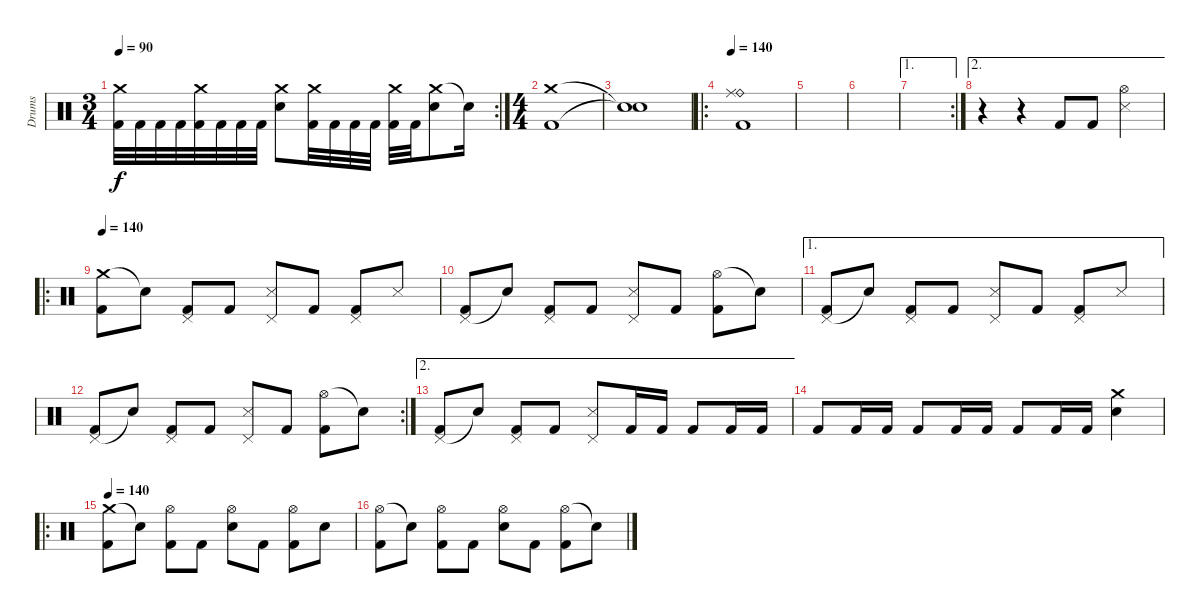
\track ("Drums" "Drums") {instrument percussion}
\staff {score}
\articulation defaults
\rc 2
\ts (3 4)
\tempo 90
\clef neutral
\ks c
("Crash medium (hit)" "Kick (hit) 2").32{dy f} "Kick (hit) 2".32 "Kick (hit) 2".32 "Kick (hit) 2".32 ("Crash medium (hit)" "Kick (hit) 2").32 "Kick (hit) 2".32 "Kick (hit) 2".32 "Kick (hit) 2".32 ("Crash medium (hit)" "Electric Snare (hit)").8 ("Crash medium (hit)" "Kick (hit) 2").32 "Kick (hit) 2".32 "Kick (hit) 2".32 "Kick (hit) 2".32 ("Crash medium (hit)" "Kick (hit) 2").32 "Kick (hit) 2".32 ("Crash medium (hit)" "Electric Snare (hit)").8 "Snare (hit)"{t}.16 |
\ts (4 4)
("Crash medium (hit)" "Kick (hit) 2").1 |
("Snare (hit)"{t} "Snare (hit)"{t}).1{volume 0} |
\ro
\tempo 140
("Ride (bell)" "Ride (middle)" "Kick (hit) 2").1{volume 14} |
|
|
\ae 1
\rc 2
|
\ae 2
r.4 r.4 "Kick (hit) 2".8 "Kick (hit) 2".8 ("Hi-Hat (open)" "Snare (side stick) 3").4 |
\ro
\tempo 140
("Crash medium (hit)" "Kick (hit) 2").8 "Snare (hit)"{t}.8 ("Pedal Hi-Hat (hit)" "Kick (hit) 2").8 "Kick (hit) 2".8 ("Pedal Hi-Hat (hit)" "Snare (side stick) 3").8 "Kick (hit) 2".8 ("Pedal Hi-Hat (hit)" "Kick (hit) 2").8 "Snare (side stick) 3".8 |
("Pedal Hi-Hat (hit)" "Kick (hit) 2").8 "Snare (hit)"{t}.8 ("Pedal Hi-Hat (hit)" "Kick (hit) 2").8 "Kick (hit) 2".8 ("Pedal Hi-Hat (hit)" "Snare (side stick) 3").8 "Kick (hit) 2".8 ("Hi-Hat (open)" "Kick (hit) 2").8 "Snare (hit)"{t}.8 |
\ae 1
("Pedal Hi-Hat (hit)" "Kick (hit) 2").8 "Snare (hit)"{t}.8 ("Pedal Hi-Hat (hit)" "Kick (hit) 2").8 "Kick (hit) 2".8 ("Pedal Hi-Hat (hit)" "Snare (side stick) 3").8 "Kick (hit) 2".8 ("Pedal Hi-Hat (hit)" "Kick (hit) 2").8 "Snare (side stick) 3".8 |
\rc 2
("Pedal Hi-Hat (hit)" "Kick (hit) 2").8 "Snare (hit)"{t}.8 ("Pedal Hi-Hat (hit)" "Kick (hit) 2").8 "Kick (hit) 2".8 ("Pedal Hi-Hat (hit)" "Snare (side stick) 3").8 "Kick (hit) 2".8 ("Hi-Hat (open)" "Kick (hit) 2").8 "Snare (hit)"{t}.8 |
\ae 2
("Pedal Hi-Hat (hit)" "Kick (hit) 2").8 "Snare (hit)"{t}.8 ("Pedal Hi-Hat (hit)" "Kick (hit) 2").8 "Kick (hit) 2".8 ("Pedal Hi-Hat (hit)" "Snare (side stick) 3").8 "Kick (hit) 2".16 "Kick (hit) 2".16 "Kick (hit) 2".8 "Kick (hit) 2".16 "Kick (hit) 2".16 |
"Kick (hit) 2".8 "Kick (hit) 2".16 "Kick (hit) 2".16 "Kick (hit) 2".8 "Kick (hit) 2".16 "Kick (hit) 2".16 "Kick (hit) 2".8 "Kick (hit) 2".16 "Kick (hit) 2".16 ("Crash medium (hit)" "Electric Snare (hit)").4 |
\ro
\tempo 140
("Crash medium (hit)" "Kick (hit) 2").8 "Snare (hit)"{t}.8 ("Hi-Hat (open)" "Kick (hit) 2").8 "Kick (hit) 2".8 ("Hi-Hat (open)" "Electric Snare (hit)").8 "Kick (hit) 2".8 ("Hi-Hat (open)" "Kick (hit) 2").8 "Electric Snare (hit)".8 |
("Hi-Hat (open)" "Kick (hit) 2").8 "Snare (hit)"{t}.8 ("Hi-Hat (open)" "Kick (hit) 2").8 "Kick (hit) 2".8 ("Hi-Hat (open)" "Electric Snare (hit)").8 "Kick (hit) 2".8 ("Hi-Hat (open)" "Kick (hit) 2").8 "Snare (hit)"{t}.8
